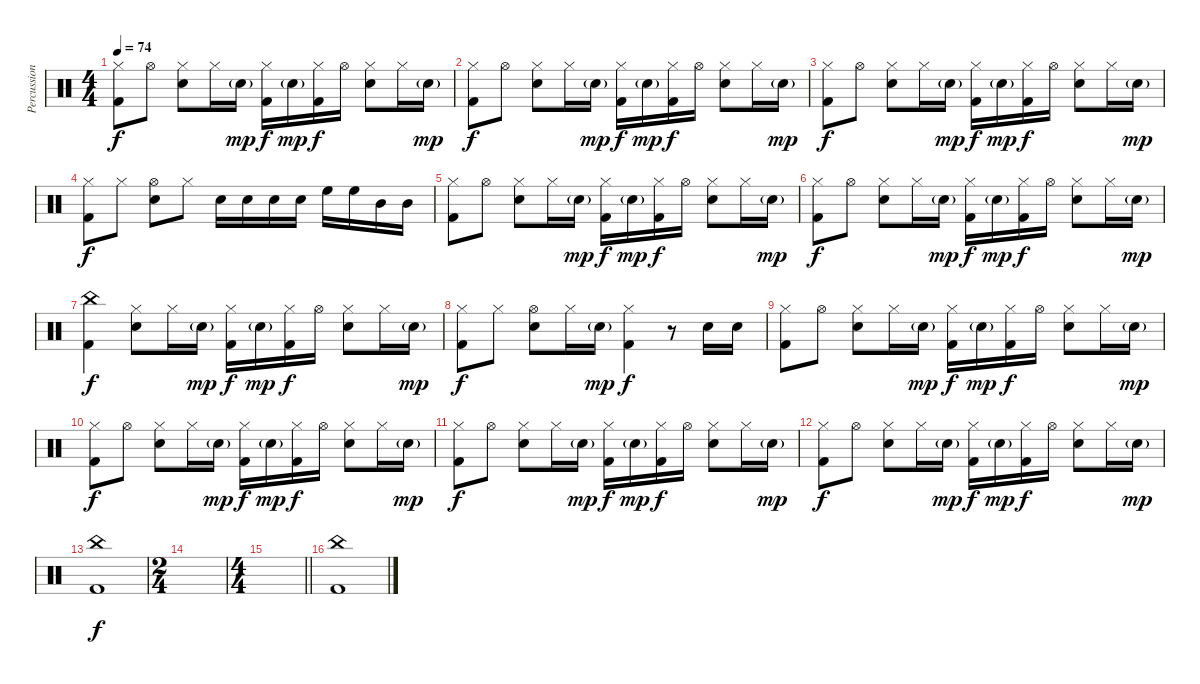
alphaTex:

\track ("Percussion" "Percussion") {instrument percussion}
\staff {score}
\articulation defaults
\ts (4 4)
\tempo 74
\clef neutral
\ks c
("Kick (hit) 2" "Hi-Hat (closed)").8{dy f} "Hi-Hat (open)".8 ("Hi-Hat (closed)" "Snare (hit) 2").8 "Hi-Hat (closed)".16 "Snare (hit) 2"{g}.16{dy mp} ("Kick (hit) 2" "Hi-Hat (closed)").16{dy f} "Snare (hit) 2"{g}.16{dy mp} ("Kick (hit) 2" "Hi-Hat (closed)").16{dy f} "Hi-Hat (open)".16 ("Hi-Hat (closed)" "Snare (hit) 2").8 "Hi-Hat (closed)".16 "Snare (hit) 2"{g}.16{dy mp} |
("Kick (hit) 2" "Hi-Hat (closed)").8{dy f} "Hi-Hat (open)".8 ("Hi-Hat (closed)" "Snare (hit) 2").8 "Hi-Hat (closed)".16 "Snare (hit) 2"{g}.16{dy mp} ("Kick (hit) 2" "Hi-Hat (closed)").16{dy f} "Snare (hit) 2"{g}.16{dy mp} ("Kick (hit) 2" "Hi-Hat (closed)").16{dy f} "Hi-Hat (open)".16 ("Hi-Hat (closed)" "Snare (hit) 2").8 "Hi-Hat (closed)".16 "Snare (hit) 2"{g}.16{dy mp} |
("Kick (hit) 2" "Hi-Hat (closed)").8{dy f} "Hi-Hat (open)".8 ("Hi-Hat (closed)" "Snare (hit) 2").8 "Hi-Hat (closed)".16 "Snare (hit) 2"{g}.16{dy mp} ("Kick (hit) 2" "Hi-Hat (closed)").16{dy f} "Snare (hit) 2"{g}.16{dy mp} ("Kick (hit) 2" "Hi-Hat (closed)").16{dy f} "Hi-Hat (open)".16 ("Hi-Hat (closed)" "Snare (hit) 2").8 "Hi-Hat (closed)".16 "Snare (hit) 2"{g}.16{dy mp} |
("Kick (hit) 2" "Hi-Hat (closed)").8{dy f} "Hi-Hat (closed)".8 ("Hi-Hat (open)" "Snare (hit) 2").8 "Hi-Hat (closed)".8 "Snare (hit) 2".16 "Snare (hit) 2".16 "Snare (hit) 2".16 "Snare (hit) 2".16 "High Floor Tom (hit)".16 "High Floor Tom (hit)".16 "Mid Tom (hit)".16 "Mid Tom (hit)".16 |
("Kick (hit) 2" "Hi-Hat (closed)").8 "Hi-Hat (open)".8 ("Hi-Hat (closed)" "Snare (hit) 2").8 "Hi-Hat (closed)".16 "Snare (hit) 2"{g}.16{dy mp} ("Kick (hit) 2" "Hi-Hat (closed)").16{dy f} "Snare (hit) 2"{g}.16{dy mp} ("Kick (hit) 2" "Hi-Hat (closed)").16{dy f} "Hi-Hat (open)".16 ("Hi-Hat (closed)" "Snare (hit) 2").8 "Hi-Hat (closed)".16 "Snare (hit) 2"{g}.16{dy mp} |
("Kick (hit) 2" "Hi-Hat (closed)").8{dy f} "Hi-Hat (open)".8 ("Hi-Hat (closed)" "Snare (hit) 2").8 "Hi-Hat (closed)".16 "Snare (hit) 2"{g}.16{dy mp} ("Kick (hit) 2" "Hi-Hat (closed)").16{dy f} "Snare (hit) 2"{g}.16{dy mp} ("Kick (hit) 2" "Hi-Hat (closed)").16{dy f} "Hi-Hat (open)".16 ("Hi-Hat (closed)" "Snare (hit) 2").8 "Hi-Hat (closed)".16 "Snare (hit) 2"{g}.16{dy mp} |
("Kick (hit) 2" "China (hit)").4{dy f} ("Snare (hit) 2" "Hi-Hat (closed)").8 "Hi-Hat (closed)".16 "Snare (hit) 2"{g}.16{dy mp} ("Hi-Hat (closed)" "Kick (hit) 2").16{dy f} "Snare (hit) 2"{g}.16{dy mp} ("Hi-Hat (closed)" "Kick (hit) 2").16{dy f} "Hi-Hat (open)".16 ("Hi-Hat (closed)" "Snare (hit) 2").8 "Hi-Hat (closed)".16 "Snare (hit) 2"{g}.16{dy mp} |
("Kick (hit) 2" "Hi-Hat (closed)").8{dy f} "Hi-Hat (closed)".8 ("Hi-Hat (open)" "Snare (hit) 2").8 "Hi-Hat (closed)".16 "Snare (hit) 2"{g}.16{dy mp} ("Hi-Hat (closed)" "Kick (hit) 2").4{dy f} r.8 "Snare (hit) 2".16 "Snare (hit) 2".16 |
("Kick (hit) 2" "Hi-Hat (closed)").8 "Hi-Hat (open)".8 ("Hi-Hat (closed)" "Snare (hit) 2").8 "Hi-Hat (closed)".16 "Snare (hit) 2"{g}.16{dy mp} ("Kick (hit) 2" "Hi-Hat (closed)").16{dy f} "Snare (hit) 2"{g}.16{dy mp} ("Kick (hit) 2" "Hi-Hat (closed)").16{dy f} "Hi-Hat (open)".16 ("Hi-Hat (closed)" "Snare (hit) 2").8 "Hi-Hat (closed)".16 "Snare (hit) 2"{g}.16{dy mp} |
("Kick (hit) 2" "Hi-Hat (closed)").8{dy f} "Hi-Hat (open)".8 ("Hi-Hat (closed)" "Snare (hit) 2").8 "Hi-Hat (closed)".16 "Snare (hit) 2"{g}.16{dy mp} ("Kick (hit) 2" "Hi-Hat (closed)").16{dy f} "Snare (hit) 2"{g}.16{dy mp} ("Kick (hit) 2" "Hi-Hat (closed)").16{dy f} "Hi-Hat (open)".16 ("Hi-Hat (closed)" "Snare (hit) 2").8 "Hi-Hat (closed)".16 "Snare (hit) 2"{g}.16{dy mp} |
("Kick (hit) 2" "Hi-Hat (closed)").8{dy f} "Hi-Hat (open)".8 ("Hi-Hat (closed)" "Snare (hit) 2").8 "Hi-Hat (closed)".16 "Snare (hit) 2"{g}.16{dy mp} ("Kick (hit) 2" "Hi-Hat (closed)").16{dy f} "Snare (hit) 2"{g}.16{dy mp} ("Kick (hit) 2" "Hi-Hat (closed)").16{dy f} "Hi-Hat (open)".16 ("Hi-Hat (closed)" "Snare (hit) 2").8 "Hi-Hat (closed)".16 "Snare (hit) 2"{g}.16{dy mp} |
("Kick (hit) 2" "Hi-Hat (closed)").8{dy f} "Hi-Hat (open)".8 ("Hi-Hat (closed)" "Snare (hit) 2").8 "Hi-Hat (closed)".16 "Snare (hit) 2"{g}.16{dy mp} ("Kick (hit) 2" "Hi-Hat (closed)").16{dy f} "Snare (hit) 2"{g}.16{dy mp} ("Kick (hit) 2" "Hi-Hat (closed)").16{dy f} "Hi-Hat (open)".16 ("Hi-Hat (closed)" "Snare (hit) 2").8 "Hi-Hat (closed)".16 "Snare (hit) 2"{g}.16{dy mp} |
("China (hit)" "Kick (hit) 2").1{dy f} |
\ts (2 4)
|
\ts (4 4)
\barLineRight lightlight
|
("China (hit)" "Kick (hit) 2").1
